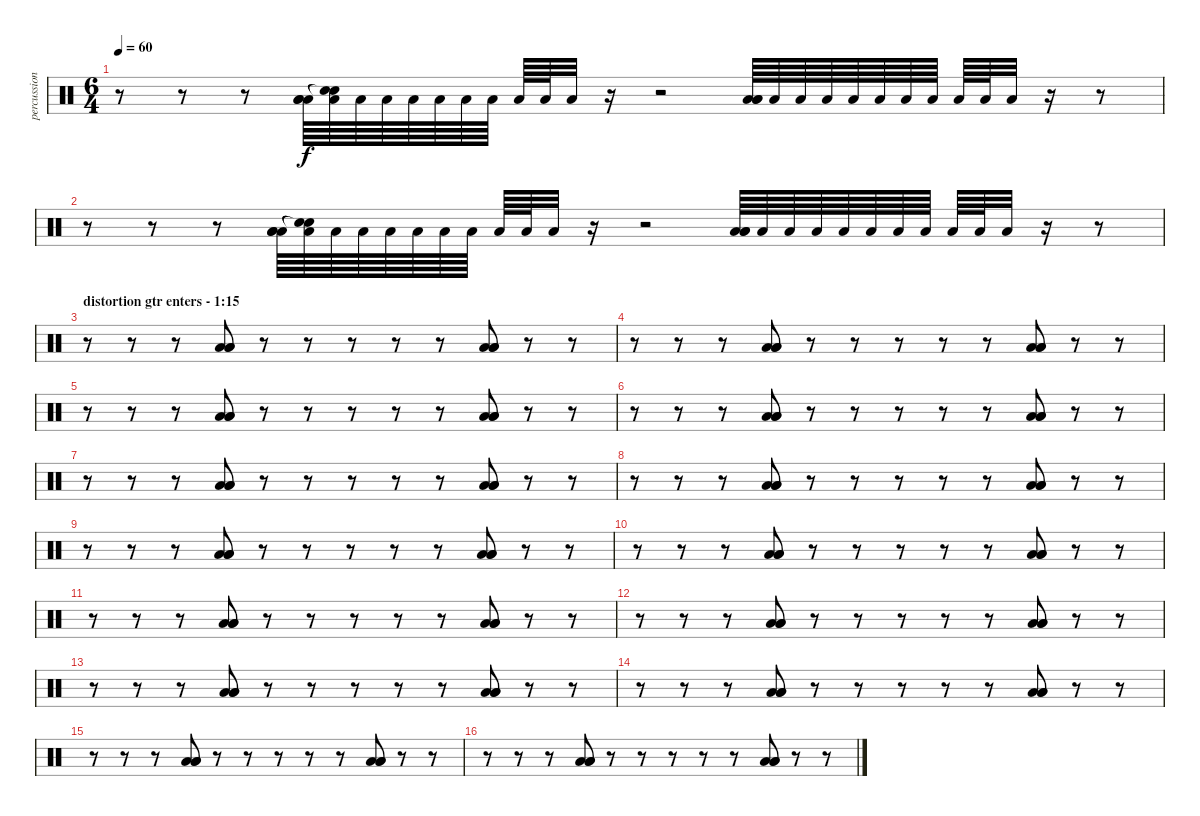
\track ("percussion" "percussion") {instrument percussion}
\staff {score}
\articulation defaults
\ts (6 4)
\tempo 60
\clef neutral
\ks c
r.8{dy f} r.8 r.8 ("Low Floor Tom (hit)" "Low Floor Tom (hit)" "Low Floor Tom (hit)").64{volume 0} ("Snare (hit)"{t} "Snare (hit)"{t} "Low Floor Tom (hit)").64 "Low Floor Tom (hit)".64 "Low Floor Tom (hit)".64 "Low Floor Tom (hit)".64 "Low Floor Tom (hit)".64 "Low Floor Tom (hit)".64 "Low Floor Tom (hit)".64 "Low Floor Tom (hit)".64 "Low Floor Tom (hit)".64 "Low Floor Tom (hit)".32 r.16 r.2{volume 11} ("Low Floor Tom (hit)" "Low Floor Tom (hit)" "Low Floor Tom (hit)").64{volume 0} "Low Floor Tom (hit)".64 "Low Floor Tom (hit)".64 "Low Floor Tom (hit)".64 "Low Floor Tom (hit)".64 "Low Floor Tom (hit)".64 "Low Floor Tom (hit)".64 "Low Floor Tom (hit)".64 "Low Floor Tom (hit)".64 "Low Floor Tom (hit)".64 "Low Floor Tom (hit)".32 r.16 r.8{volume 11} |
r.8 r.8 r.8 ("Low Floor Tom (hit)" "Low Floor Tom (hit)" "Low Floor Tom (hit)").64{volume 0} ("Snare (hit)"{t} "Snare (hit)"{t} "Low Floor Tom (hit)").64 "Low Floor Tom (hit)".64 "Low Floor Tom (hit)".64 "Low Floor Tom (hit)".64 "Low Floor Tom (hit)".64 "Low Floor Tom (hit)".64 "Low Floor Tom (hit)".64 "Low Floor Tom (hit)".64 "Low Floor Tom (hit)".64 "Low Floor Tom (hit)".32 r.16 r.2{volume 11} ("Low Floor Tom (hit)" "Low Floor Tom (hit)" "Low Floor Tom (hit)").64{volume 0} "Low Floor Tom (hit)".64 "Low Floor Tom (hit)".64 "Low Floor Tom (hit)".64 "Low Floor Tom (hit)".64 "Low Floor Tom (hit)".64 "Low Floor Tom (hit)".64 "Low Floor Tom (hit)".64 "Low Floor Tom (hit)".64 "Low Floor Tom (hit)".64 "Low Floor Tom (hit)".32 r.16 r.8{volume 11} |
\section ("" "distortion gtr enters - 1:15")
r.8 r.8 r.8 ("Low Floor Tom (hit)" "Low Floor Tom (hit)" "Low Floor Tom (hit)").8 r.8 r.8 r.8 r.8 r.8 ("Low Floor Tom (hit)" "Low Floor Tom (hit)" "Low Floor Tom (hit)").8 r.8 r.8 |
r.8 r.8 r.8 ("Low Floor Tom (hit)" "Low Floor Tom (hit)" "Low Floor Tom (hit)").8 r.8 r.8 r.8 r.8 r.8 ("Low Floor Tom (hit)" "Low Floor Tom (hit)" "Low Floor Tom (hit)").8 r.8 r.8 |
r.8 r.8 r.8 ("Low Floor Tom (hit)" "Low Floor Tom (hit)" "Low Floor Tom (hit)").8 r.8 r.8 r.8 r.8 r.8 ("Low Floor Tom (hit)" "Low Floor Tom (hit)" "Low Floor Tom (hit)").8 r.8 r.8 |
r.8 r.8 r.8 ("Low Floor Tom (hit)" "Low Floor Tom (hit)" "Low Floor Tom (hit)").8 r.8 r.8 r.8 r.8 r.8 ("Low Floor Tom (hit)" "Low Floor Tom (hit)" "Low Floor Tom (hit)").8 r.8 r.8 |
r.8 r.8 r.8 ("Low Floor Tom (hit)" "Low Floor Tom (hit)" "Low Floor Tom (hit)").8 r.8 r.8 r.8 r.8 r.8 ("Low Floor Tom (hit)" "Low Floor Tom (hit)" "Low Floor Tom (hit)").8 r.8 r.8 |
r.8 r.8 r.8 ("Low Floor Tom (hit)" "Low Floor Tom (hit)" "Low Floor Tom (hit)").8 r.8 r.8 r.8 r.8 r.8 ("Low Floor Tom (hit)" "Low Floor Tom (hit)" "Low Floor Tom (hit)").8 r.8 r.8 |
r.8 r.8 r.8 ("Low Floor Tom (hit)" "Low Floor Tom (hit)" "Low Floor Tom (hit)").8 r.8 r.8 r.8 r.8 r.8 ("Low Floor Tom (hit)" "Low Floor Tom (hit)" "Low Floor Tom (hit)").8 r.8 r.8 |
r.8 r.8 r.8 ("Low Floor Tom (hit)" "Low Floor Tom (hit)" "Low Floor Tom (hit)").8 r.8 r.8 r.8 r.8 r.8 ("Low Floor Tom (hit)" "Low Floor Tom (hit)" "Low Floor Tom (hit)").8 r.8 r.8 |
r.8 r.8 r.8 ("Low Floor Tom (hit)" "Low Floor Tom (hit)" "Low Floor Tom (hit)").8 r.8 r.8 r.8 r.8 r.8 ("Low Floor Tom (hit)" "Low Floor Tom (hit)" "Low Floor Tom (hit)").8 r.8 r.8 |
r.8 r.8 r.8 ("Low Floor Tom (hit)" "Low Floor Tom (hit)" "Low Floor Tom (hit)").8 r.8 r.8 r.8 r.8 r.8 ("Low Floor Tom (hit)" "Low Floor Tom (hit)" "Low Floor Tom (hit)").8 r.8 r.8 |
r.8 r.8 r.8 ("Low Floor Tom (hit)" "Low Floor Tom (hit)" "Low Floor Tom (hit)").8 r.8 r.8 r.8 r.8 r.8 ("Low Floor Tom (hit)" "Low Floor Tom (hit)" "Low Floor Tom (hit)").8 r.8 r.8 |
r.8 r.8 r.8 ("Low Floor Tom (hit)" "Low Floor Tom (hit)" "Low Floor Tom (hit)").8 r.8 r.8 r.8 r.8 r.8 ("Low Floor Tom (hit)" "Low Floor Tom (hit)" "Low Floor Tom (hit)").8 r.8 r.8 |
r.8 r.8 r.8 ("Low Floor Tom (hit)" "Low Floor Tom (hit)" "Low Floor Tom (hit)").8 r.8 r.8 r.8 r.8 r.8 ("Low Floor Tom (hit)" "Low Floor Tom (hit)" "Low Floor Tom (hit)").8 r.8 r.8 |
r.8 r.8 r.8 ("Low Floor Tom (hit)" "Low Floor Tom (hit)" "Low Floor Tom (hit)").8 r.8 r.8 r.8 r.8 r.8 ("Low Floor Tom (hit)" "Low Floor Tom (hit)" "Low Floor Tom (hit)").8 r.8 r.8
